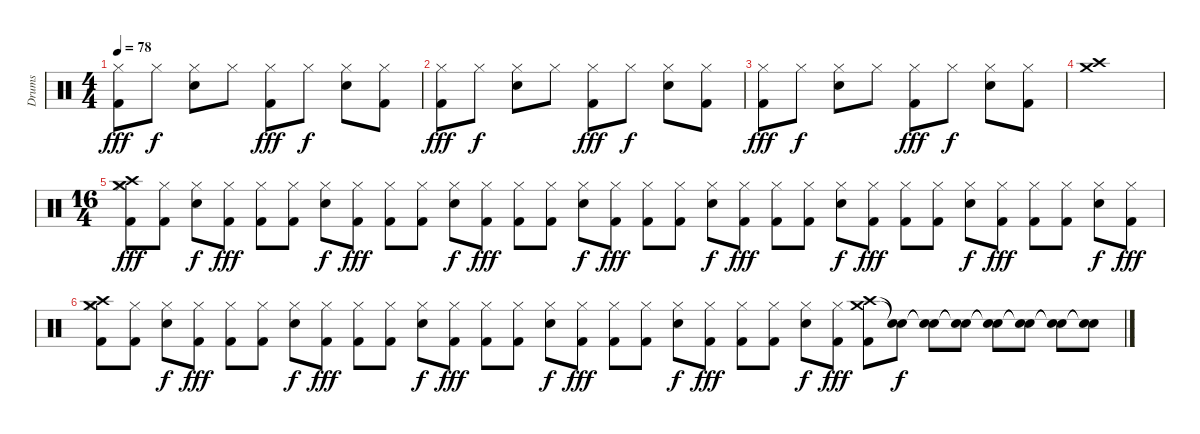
\track ("Drums" "Drums") {instrument percussion}
\staff {score}
\articulation defaults
\ts (4 4)
\tempo 78
\clef neutral
\ks c
("Hi-Hat (closed)" "Kick (hit) 2").8{dy fff} "Hi-Hat (closed)".8{dy f} ("Hi-Hat (closed)" "Snare (hit) 2").8 "Hi-Hat (closed)".8 ("Hi-Hat (closed)" "Kick (hit) 2").8{dy fff} "Hi-Hat (closed)".8{dy f} ("Hi-Hat (closed)" "Snare (hit) 2").8 ("Hi-Hat (closed)" "Kick (hit) 2").8 |
("Hi-Hat (closed)" "Kick (hit) 2").8{dy fff} "Hi-Hat (closed)".8{dy f} ("Hi-Hat (closed)" "Snare (hit) 2").8 "Hi-Hat (closed)".8 ("Hi-Hat (closed)" "Kick (hit) 2").8{dy fff} "Hi-Hat (closed)".8{dy f} ("Hi-Hat (closed)" "Snare (hit) 2").8 ("Hi-Hat (closed)" "Kick (hit) 2").8 |
("Hi-Hat (closed)" "Kick (hit) 2").8{dy fff} "Hi-Hat (closed)".8{dy f} ("Hi-Hat (closed)" "Snare (hit) 2").8 "Hi-Hat (closed)".8 ("Hi-Hat (closed)" "Kick (hit) 2").8{dy fff} "Hi-Hat (closed)".8{dy f} ("Hi-Hat (closed)" "Snare (hit) 2").8 ("Hi-Hat (closed)" "Kick (hit) 2").8 |
("Crash high (hit)" "Crash medium (hit)").1 |
\ts (16 4)
("Hi-Hat (closed)" "Crash medium (hit)" "Crash high (hit)" "Kick (hit) 2").8{dy fff} ("Hi-Hat (closed)" "Kick (hit) 2").8 ("Hi-Hat (closed)" "Snare (hit) 2").8{dy f} ("Hi-Hat (closed)" "Kick (hit) 2").8{dy fff} ("Hi-Hat (closed)" "Kick (hit) 2").8 ("Hi-Hat (closed)" "Kick (hit) 2").8 ("Hi-Hat (closed)" "Snare (hit) 2").8{dy f} ("Hi-Hat (closed)" "Kick (hit) 2").8{dy fff} ("Hi-Hat (closed)" "Kick (hit) 2").8 ("Hi-Hat (closed)" "Kick (hit) 2").8 ("Hi-Hat (closed)" "Snare (hit) 2").8{dy f} ("Hi-Hat (closed)" "Kick (hit) 2").8{dy fff} ("Hi-Hat (closed)" "Kick (hit) 2").8 ("Hi-Hat (closed)" "Kick (hit) 2").8 ("Hi-Hat (closed)" "Snare (hit) 2").8{dy f} ("Hi-Hat (closed)" "Kick (hit) 2").8{dy fff} ("Hi-Hat (closed)" "Kick (hit) 2").8 ("Hi-Hat (closed)" "Kick (hit) 2").8 ("Hi-Hat (closed)" "Snare (hit) 2").8{dy f} ("Hi-Hat (closed)" "Kick (hit) 2").8{dy fff} ("Hi-Hat (closed)" "Kick (hit) 2").8 ("Hi-Hat (closed)" "Kick (hit) 2").8 ("Hi-Hat (closed)" "Snare (hit) 2").8{dy f} ("Hi-Hat (closed)" "Kick (hit) 2").8{dy fff} ("Hi-Hat (closed)" "Kick (hit) 2").8 ("Hi-Hat (closed)" "Kick (hit) 2").8 ("Hi-Hat (closed)" "Snare (hit) 2").8{dy f} ("Hi-Hat (closed)" "Kick (hit) 2").8{dy fff} ("Hi-Hat (closed)" "Kick (hit) 2").8 ("Hi-Hat (closed)" "Kick (hit) 2").8 ("Hi-Hat (closed)" "Snare (hit) 2").8{dy f} ("Hi-Hat (closed)" "Kick (hit) 2").8{dy fff} |
("Hi-Hat (closed)" "Crash medium (hit)" "Crash high (hit)" "Kick (hit) 2").8 ("Hi-Hat (closed)" "Kick (hit) 2").8 ("Hi-Hat (closed)" "Snare (hit) 2").8{dy f} ("Hi-Hat (closed)" "Kick (hit) 2").8{dy fff} ("Hi-Hat (closed)" "Kick (hit) 2").8 ("Hi-Hat (closed)" "Kick (hit) 2").8 ("Hi-Hat (closed)" "Snare (hit) 2").8{dy f} ("Hi-Hat (closed)" "Kick (hit) 2").8{dy fff} ("Hi-Hat (closed)" "Kick (hit) 2").8 ("Hi-Hat (closed)" "Kick (hit) 2").8 ("Hi-Hat (closed)" "Snare (hit) 2").8{dy f} ("Hi-Hat (closed)" "Kick (hit) 2").8{dy fff} ("Hi-Hat (closed)" "Kick (hit) 2").8 ("Hi-Hat (closed)" "Kick (hit) 2").8 ("Hi-Hat (closed)" "Snare (hit) 2").8{dy f} ("Hi-Hat (closed)" "Kick (hit) 2").8{dy fff} ("Hi-Hat (closed)" "Kick (hit) 2").8 ("Hi-Hat (closed)" "Kick (hit) 2").8 ("Hi-Hat (closed)" "Snare (hit) 2").8{dy f} ("Hi-Hat (closed)" "Kick (hit) 2").8{dy fff} ("Hi-Hat (closed)" "Kick (hit) 2").8 ("Hi-Hat (closed)" "Kick (hit) 2").8 ("Hi-Hat (closed)" "Snare (hit) 2").8{dy f} ("Hi-Hat (closed)" "Kick (hit) 2").8{dy fff} ("Crash medium (hit)" "Crash high (hit)" "Kick (hit) 2").8 ("Snare (hit)"{t} "Snare (hit)"{t}).8{dy f} ("Snare (hit)"{t} "Snare (hit)"{t}).8 ("Snare (hit)"{t} "Snare (hit)"{t}).8 ("Snare (hit)"{t} "Snare (hit)"{t}).8 ("Snare (hit)"{t} "Snare (hit)"{t}).8 ("Snare (hit)"{t} "Snare (hit)"{t}).8 ("Snare (hit)"{t} "Snare (hit)"{t}).8
